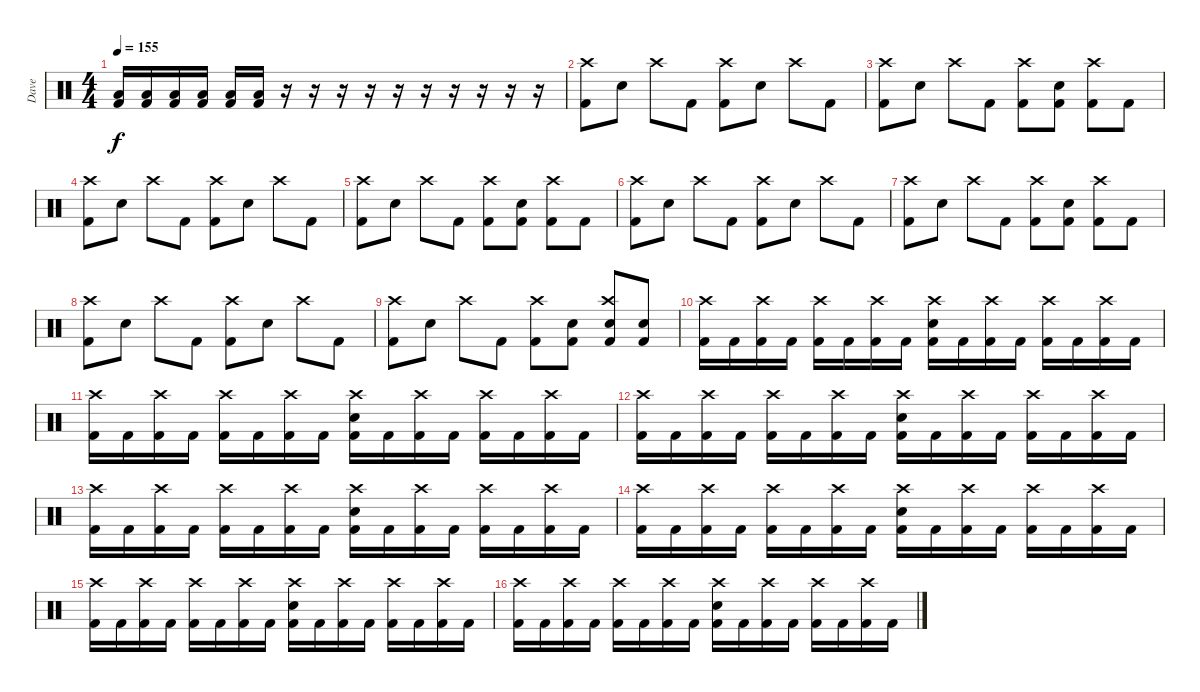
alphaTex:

\track ("Dave" "Dave") {instrument percussion}
\staff {score}
\articulation defaults
\ts (4 4)
\tempo 155
\clef neutral
\ks c
("Low Floor Tom (hit)" "Kick (hit) 2").16{dy f} ("Low Floor Tom (hit)" "Kick (hit) 2").16 ("Low Floor Tom (hit)" "Kick (hit) 2").16 ("Low Floor Tom (hit)" "Kick (hit) 2").16 ("Low Floor Tom (hit)" "Kick (hit) 2").16 ("Low Floor Tom (hit)" "Kick (hit) 2").16 r.16 r.16 r.16 r.16 r.16 r.16 r.16 r.16 r.16 r.16 |
("Crash high (hit)" "Kick (hit) 2").8 "Snare (hit) 2".8 "Crash high (hit)".8 "Kick (hit) 2".8 ("Crash high (hit)" "Kick (hit) 2").8 "Snare (hit) 2".8 "Crash high (hit)".8 "Kick (hit) 2".8 |
("Crash high (hit)" "Kick (hit) 2").8 "Snare (hit) 2".8 "Crash high (hit)".8 "Kick (hit) 2".8 ("Crash high (hit)" "Kick (hit) 2").8 ("Snare (hit) 2" "Kick (hit) 2").8 ("Crash high (hit)" "Kick (hit) 2").8 "Kick (hit) 2".8 |
("Crash high (hit)" "Kick (hit) 2").8 "Snare (hit) 2".8 "Crash high (hit)".8 "Kick (hit) 2".8 ("Crash high (hit)" "Kick (hit) 2").8 "Snare (hit) 2".8 "Crash high (hit)".8 "Kick (hit) 2".8 |
("Crash high (hit)" "Kick (hit) 2").8 "Snare (hit) 2".8 "Crash high (hit)".8 "Kick (hit) 2".8 ("Crash high (hit)" "Kick (hit) 2").8 ("Snare (hit) 2" "Kick (hit) 2").8 ("Crash high (hit)" "Kick (hit) 2").8 "Kick (hit) 2".8 |
("Crash high (hit)" "Kick (hit) 2").8 "Snare (hit) 2".8 "Crash high (hit)".8 "Kick (hit) 2".8 ("Crash high (hit)" "Kick (hit) 2").8 "Snare (hit) 2".8 "Crash high (hit)".8 "Kick (hit) 2".8 |
("Crash high (hit)" "Kick (hit) 2").8 "Snare (hit) 2".8 "Crash high (hit)".8 "Kick (hit) 2".8 ("Crash high (hit)" "Kick (hit) 2").8 ("Snare (hit) 2" "Kick (hit) 2").8 ("Crash high (hit)" "Kick (hit) 2").8 "Kick (hit) 2".8 |
("Crash high (hit)" "Kick (hit) 2").8 "Snare (hit) 2".8 "Crash high (hit)".8 "Kick (hit) 2".8 ("Crash high (hit)" "Kick (hit) 2").8 "Snare (hit) 2".8 "Crash high (hit)".8 "Kick (hit) 2".8 |
("Crash high (hit)" "Kick (hit) 2").8 "Snare (hit) 2".8 "Crash high (hit)".8 "Kick (hit) 2".8 ("Crash high (hit)" "Kick (hit) 2").8 ("Snare (hit) 2" "Kick (hit) 2").8 ("Crash high (hit)" "Snare (hit) 2" "Kick (hit) 2").8 ("Snare (hit) 2" "Kick (hit) 2").8 |
("Crash high (hit)" "Kick (hit) 2").16 "Kick (hit) 2".16 ("Crash high (hit)" "Kick (hit) 2").16 "Kick (hit) 2".16 ("Crash high (hit)" "Kick (hit) 2").16 "Kick (hit) 2".16 ("Crash high (hit)" "Kick (hit) 2").16 "Kick (hit) 2".16 ("Crash high (hit)" "Snare (hit) 2" "Kick (hit) 2").16 "Kick (hit) 2".16 ("Crash high (hit)" "Kick (hit) 2").16 "Kick (hit) 2".16 ("Crash high (hit)" "Kick (hit) 2").16 "Kick (hit) 2".16 ("Crash high (hit)" "Kick (hit) 2").16 "Kick (hit) 2".16 |
("Crash high (hit)" "Kick (hit) 2").16 "Kick (hit) 2".16 ("Crash high (hit)" "Kick (hit) 2").16 "Kick (hit) 2".16 ("Crash high (hit)" "Kick (hit) 2").16 "Kick (hit) 2".16 ("Crash high (hit)" "Kick (hit) 2").16 "Kick (hit) 2".16 ("Crash high (hit)" "Snare (hit) 2" "Kick (hit) 2").16 "Kick (hit) 2".16 ("Crash high (hit)" "Kick (hit) 2").16 "Kick (hit) 2".16 ("Crash high (hit)" "Kick (hit) 2").16 "Kick (hit) 2".16 ("Crash high (hit)" "Kick (hit) 2").16 "Kick (hit) 2".16 |
("Crash high (hit)" "Kick (hit) 2").16 "Kick (hit) 2".16 ("Crash high (hit)" "Kick (hit) 2").16 "Kick (hit) 2".16 ("Crash high (hit)" "Kick (hit) 2").16 "Kick (hit) 2".16 ("Crash high (hit)" "Kick (hit) 2").16 "Kick (hit) 2".16 ("Crash high (hit)" "Snare (hit) 2" "Kick (hit) 2").16 "Kick (hit) 2".16 ("Crash high (hit)" "Kick (hit) 2").16 "Kick (hit) 2".16 ("Crash high (hit)" "Kick (hit) 2").16 "Kick (hit) 2".16 ("Crash high (hit)" "Kick (hit) 2").16 "Kick (hit) 2".16 |
("Crash high (hit)" "Kick (hit) 2").16 "Kick (hit) 2".16 ("Crash high (hit)" "Kick (hit) 2").16 "Kick (hit) 2".16 ("Crash high (hit)" "Kick (hit) 2").16 "Kick (hit) 2".16 ("Crash high (hit)" "Kick (hit) 2").16 "Kick (hit) 2".16 ("Crash high (hit)" "Snare (hit) 2" "Kick (hit) 2").16 "Kick (hit) 2".16 ("Crash high (hit)" "Kick (hit) 2").16 "Kick (hit) 2".16 ("Crash high (hit)" "Kick (hit) 2").16 "Kick (hit) 2".16 ("Crash high (hit)" "Kick (hit) 2").16 "Kick (hit) 2".16 |
("Crash high (hit)" "Kick (hit) 2").16 "Kick (hit) 2".16 ("Crash high (hit)" "Kick (hit) 2").16 "Kick (hit) 2".16 ("Crash high (hit)" "Kick (hit) 2").16 "Kick (hit) 2".16 ("Crash high (hit)" "Kick (hit) 2").16 "Kick (hit) 2".16 ("Crash high (hit)" "Snare (hit) 2" "Kick (hit) 2").16 "Kick (hit) 2".16 ("Crash high (hit)" "Kick (hit) 2").16 "Kick (hit) 2".16 ("Crash high (hit)" "Kick (hit) 2").16 "Kick (hit) 2".16 ("Crash high (hit)" "Kick (hit) 2").16 "Kick (hit) 2".16 |
("Crash high (hit)" "Kick (hit) 2").16 "Kick (hit) 2".16 ("Crash high (hit)" "Kick (hit) 2").16 "Kick (hit) 2".16 ("Crash high (hit)" "Kick (hit) 2").16 "Kick (hit) 2".16 ("Crash high (hit)" "Kick (hit) 2").16 "Kick (hit) 2".16 ("Crash high (hit)" "Snare (hit) 2" "Kick (hit) 2").16 "Kick (hit) 2".16 ("Crash high (hit)" "Kick (hit) 2").16 "Kick (hit) 2".16 ("Crash high (hit)" "Kick (hit) 2").16 "Kick (hit) 2".16 ("Crash high (hit)" "Kick (hit) 2").16 "Kick (hit) 2".16 |
("Crash high (hit)" "Kick (hit) 2").16 "Kick (hit) 2".16 ("Crash high (hit)" "Kick (hit) 2").16 "Kick (hit) 2".16 ("Crash high (hit)" "Kick (hit) 2").16 "Kick (hit) 2".16 ("Crash high (hit)" "Kick (hit) 2").16 "Kick (hit) 2".16 ("Crash high (hit)" "Snare (hit) 2" "Kick (hit) 2").16 "Kick (hit) 2".16 ("Crash high (hit)" "Kick (hit) 2").16 "Kick (hit) 2".16 ("Crash high (hit)" "Kick (hit) 2").16 "Kick (hit) 2".16 ("Crash high (hit)" "Kick (hit) 2").16 "Kick (hit) 2".16
